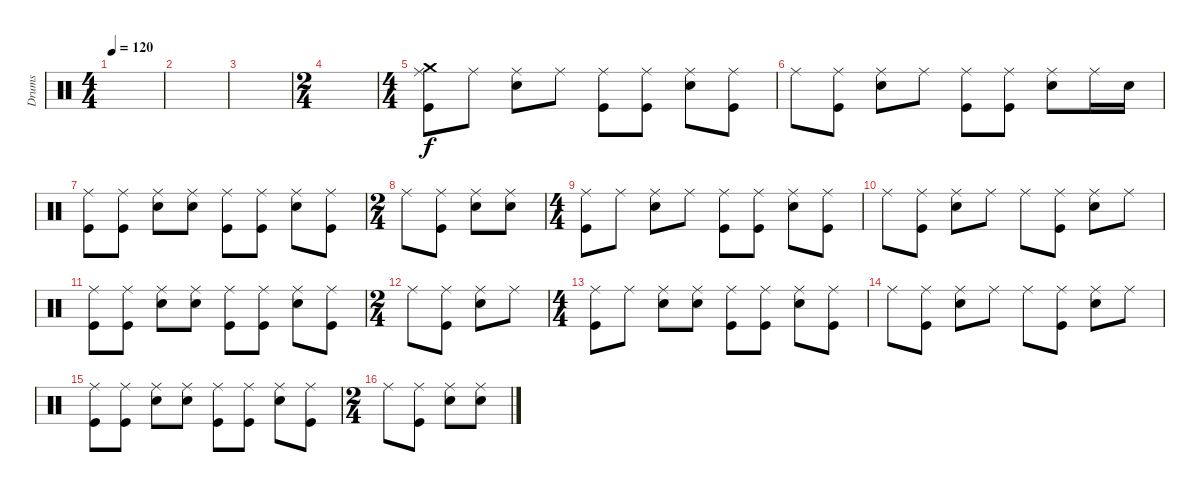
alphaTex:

\track ("Drums" "Drums") {instrument percussion}
\staff {score}
\articulation defaults
\ts (4 4)
\tempo 120
\clef neutral
\ks c
|
|
|
\ts (2 4)
|
\ts (4 4)
\section ("" "")
("Ride (middle)" "Crash medium (hit)" "Kick (hit)").8 "Ride (middle)".8 ("Ride (middle)" "Snare (hit) 2").8 "Ride (middle)".8 ("Ride (middle)" "Kick (hit)").8 ("Ride (middle)" "Kick (hit)").8 ("Ride (middle)" "Snare (hit) 2").8 ("Ride (middle)" "Kick (hit)").8 |
"Ride (middle)".8 ("Ride (middle)" "Kick (hit)").8 ("Ride (middle)" "Snare (hit) 2").8 "Ride (middle)".8 ("Ride (middle)" "Kick (hit)").8 ("Ride (middle)" "Kick (hit)").8 ("Ride (middle)" "Snare (hit) 2").8 "Ride (middle)".16 "Snare (hit) 2".16 |
("Ride (middle)" "Kick (hit)").8 ("Ride (middle)" "Kick (hit)").8 ("Ride (middle)" "Snare (hit) 2").8 ("Ride (middle)" "Snare (hit) 2").8 ("Ride (middle)" "Kick (hit)").8 ("Ride (middle)" "Kick (hit)").8 ("Ride (middle)" "Snare (hit) 2").8 ("Ride (middle)" "Kick (hit)").8 |
\ts (2 4)
"Ride (middle)".8 ("Ride (middle)" "Kick (hit)").8 ("Ride (middle)" "Snare (hit) 2").8 ("Ride (middle)" "Snare (hit) 2").8 |
\ts (4 4)
("Ride (middle)" "Kick (hit)").8 "Ride (middle)".8 ("Ride (middle)" "Snare (hit) 2").8 "Ride (middle)".8 ("Ride (middle)" "Kick (hit)").8 ("Ride (middle)" "Kick (hit)").8 ("Ride (middle)" "Snare (hit) 2").8 ("Ride (middle)" "Kick (hit)").8 |
"Ride (middle)".8 ("Ride (middle)" "Kick (hit)").8 ("Ride (middle)" "Snare (hit) 2").8 "Ride (middle)".8 "Ride (middle)".8 ("Ride (middle)" "Kick (hit)").8 ("Ride (middle)" "Snare (hit) 2").8 "Ride (middle)".8 |
("Ride (middle)" "Kick (hit)").8 ("Ride (middle)" "Kick (hit)").8 ("Ride (middle)" "Snare (hit) 2").8 ("Ride (middle)" "Snare (hit) 2").8 ("Ride (middle)" "Kick (hit)").8 ("Ride (middle)" "Kick (hit)").8 ("Ride (middle)" "Snare (hit) 2").8 ("Ride (middle)" "Kick (hit)").8 |
\ts (2 4)
"Ride (middle)".8 ("Ride (middle)" "Kick (hit)").8 ("Ride (middle)" "Snare (hit) 2").8 "Ride (middle)".8 |
\ts (4 4)
("Ride (middle)" "Kick (hit)").8 "Ride (middle)".8 ("Ride (middle)" "Snare (hit) 2").8 ("Ride (middle)" "Snare (hit) 2").8 ("Ride (middle)" "Kick (hit)").8 ("Ride (middle)" "Kick (hit)").8 ("Ride (middle)" "Snare (hit) 2").8 ("Ride (middle)" "Kick (hit)").8 |
"Ride (middle)".8 ("Ride (middle)" "Kick (hit)").8 ("Ride (middle)" "Snare (hit) 2").8 "Ride (middle)".8 "Ride (middle)".8 ("Ride (middle)" "Kick (hit)").8 ("Ride (middle)" "Snare (hit) 2").8 "Ride (middle)".8 |
("Ride (middle)" "Kick (hit)").8 ("Ride (middle)" "Kick (hit)").8 ("Ride (middle)" "Snare (hit) 2").8 ("Ride (middle)" "Snare (hit) 2").8 ("Ride (middle)" "Kick (hit)").8 ("Ride (middle)" "Kick (hit)").8 ("Ride (middle)" "Snare (hit) 2").8 ("Ride (middle)" "Kick (hit)").8 |
\ts (2 4)
"Ride (middle)".8 ("Ride (middle)" "Kick (hit)").8 ("Ride (middle)" "Snare (hit) 2").8 ("Ride (middle)" "Snare (hit) 2").8
